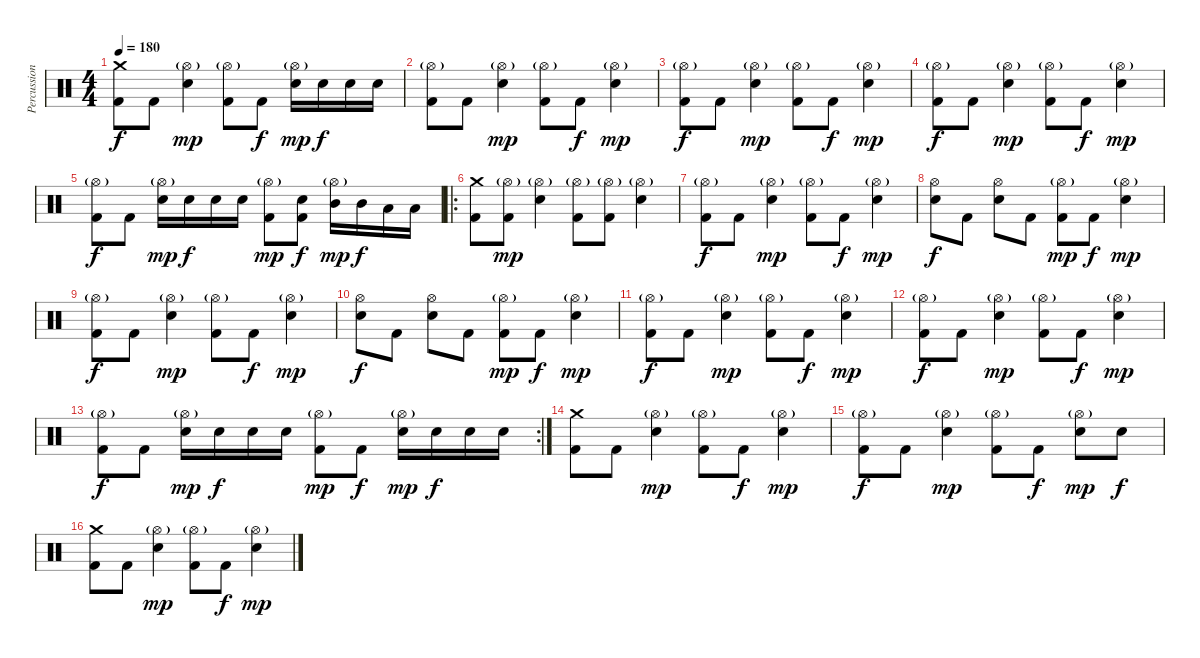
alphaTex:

\track ("Percussions" "Percussion") {instrument percussion}
\staff {score}
\articulation defaults
\ts (4 4)
\tempo 180
\clef neutral
\ks c
("Crash medium (hit)" "Kick (hit) 2").8{dy f} "Kick (hit) 2".8 ("Snare (hit) 2" "Hi-Hat (open)"{g}).4{dy mp} ("Hi-Hat (open)"{g} "Kick (hit) 2").8 "Kick (hit) 2".8{dy f} ("Snare (hit) 2" "Hi-Hat (open)"{g}).16{dy mp} "Snare (hit) 2".16{dy f} "Snare (hit) 2".16 "Snare (hit) 2".16 |
("Hi-Hat (open)"{g} "Kick (hit) 2").8 "Kick (hit) 2".8 ("Snare (hit) 2" "Hi-Hat (open)"{g}).4{dy mp} ("Hi-Hat (open)"{g} "Kick (hit) 2").8 "Kick (hit) 2".8{dy f} ("Snare (hit) 2" "Hi-Hat (open)"{g}).4{dy mp} |
("Hi-Hat (open)"{g} "Kick (hit) 2").8{dy f} "Kick (hit) 2".8 ("Snare (hit) 2" "Hi-Hat (open)"{g}).4{dy mp} ("Hi-Hat (open)"{g} "Kick (hit) 2").8 "Kick (hit) 2".8{dy f} ("Snare (hit) 2" "Hi-Hat (open)"{g}).4{dy mp} |
("Hi-Hat (open)"{g} "Kick (hit) 2").8{dy f} "Kick (hit) 2".8 ("Snare (hit) 2" "Hi-Hat (open)"{g}).4{dy mp} ("Hi-Hat (open)"{g} "Kick (hit) 2").8 "Kick (hit) 2".8{dy f} ("Snare (hit) 2" "Hi-Hat (open)"{g}).4{dy mp} |
("Hi-Hat (open)"{g} "Kick (hit) 2").8{dy f} "Kick (hit) 2".8 ("Snare (hit) 2" "Hi-Hat (open)"{g}).16{dy mp} "Snare (hit) 2".16{dy f} "Snare (hit) 2".16 "Snare (hit) 2".16 ("Hi-Hat (open)"{g} "Kick (hit) 2").8{dy mp} ("Snare (hit) 2" "Kick (hit) 2").8{dy f} ("Mid Tom (hit)" "Hi-Hat (open)"{g}).16{dy mp} "Mid Tom (hit)".16{dy f} "Low Tom (hit)".16 "Low Tom (hit)".16 |
\ro
("Crash medium (hit)" "Kick (hit) 2").8 ("Hi-Hat (open)"{g} "Kick (hit) 2").8{dy mp} ("Snare (hit) 2" "Hi-Hat (open)"{g}).4 ("Hi-Hat (open)"{g} "Kick (hit) 2").8 ("Hi-Hat (open)"{g} "Kick (hit) 2").8 ("Snare (hit) 2" "Hi-Hat (open)"{g}).4 |
("Hi-Hat (open)"{g} "Kick (hit) 2").8{dy f} "Kick (hit) 2".8 ("Snare (hit) 2" "Hi-Hat (open)"{g}).4{dy mp} ("Hi-Hat (open)"{g} "Kick (hit) 2").8 "Kick (hit) 2".8{dy f} ("Snare (hit) 2" "Hi-Hat (open)"{g}).4{dy mp} |
("Snare (hit) 2" "Hi-Hat (open)").8{dy f} "Kick (hit) 2".8 ("Snare (hit) 2" "Hi-Hat (open)").8 "Kick (hit) 2".8 ("Hi-Hat (open)"{g} "Kick (hit) 2").8{dy mp} "Kick (hit) 2".8{dy f} ("Snare (hit) 2" "Hi-Hat (open)"{g}).4{dy mp} |
("Hi-Hat (open)"{g} "Kick (hit) 2").8{dy f} "Kick (hit) 2".8 ("Snare (hit) 2" "Hi-Hat (open)"{g}).4{dy mp} ("Hi-Hat (open)"{g} "Kick (hit) 2").8 "Kick (hit) 2".8{dy f} ("Snare (hit) 2" "Hi-Hat (open)"{g}).4{dy mp} |
("Snare (hit) 2" "Hi-Hat (open)").8{dy f} "Kick (hit) 2".8 ("Snare (hit) 2" "Hi-Hat (open)").8 "Kick (hit) 2".8 ("Hi-Hat (open)"{g} "Kick (hit) 2").8{dy mp} "Kick (hit) 2".8{dy f} ("Snare (hit) 2" "Hi-Hat (open)"{g}).4{dy mp} |
("Hi-Hat (open)"{g} "Kick (hit) 2").8{dy f} "Kick (hit) 2".8 ("Snare (hit) 2" "Hi-Hat (open)"{g}).4{dy mp} ("Hi-Hat (open)"{g} "Kick (hit) 2").8 "Kick (hit) 2".8{dy f} ("Snare (hit) 2" "Hi-Hat (open)"{g}).4{dy mp} |
("Hi-Hat (open)"{g} "Kick (hit) 2").8{dy f} "Kick (hit) 2".8 ("Snare (hit) 2" "Hi-Hat (open)"{g}).4{dy mp} ("Hi-Hat (open)"{g} "Kick (hit) 2").8 "Kick (hit) 2".8{dy f} ("Snare (hit) 2" "Hi-Hat (open)"{g}).4{dy mp} |
\rc 2
("Hi-Hat (open)"{g} "Kick (hit) 2").8{dy f} "Kick (hit) 2".8 ("Snare (hit) 2" "Hi-Hat (open)"{g}).16{dy mp} "Snare (hit) 2".16{dy f} "Snare (hit) 2".16 "Snare (hit) 2".16 ("Hi-Hat (open)"{g} "Kick (hit) 2").8{dy mp} "Kick (hit) 2".8{dy f} ("Snare (hit) 2" "Hi-Hat (open)"{g}).16{dy mp} "Snare (hit) 2".16{dy f} "Snare (hit) 2".16 "Snare (hit) 2".16 |
("Crash medium (hit)" "Kick (hit) 2").8 "Kick (hit) 2".8 ("Snare (hit) 2" "Hi-Hat (open)"{g}).4{dy mp} ("Hi-Hat (open)"{g} "Kick (hit) 2").8 "Kick (hit) 2".8{dy f} ("Snare (hit) 2" "Hi-Hat (open)"{g}).4{dy mp} |
("Hi-Hat (open)"{g} "Kick (hit) 2").8{dy f} "Kick (hit) 2".8 ("Snare (hit) 2" "Hi-Hat (open)"{g}).4{dy mp} ("Hi-Hat (open)"{g} "Kick (hit) 2").8 "Kick (hit) 2".8{dy f} ("Snare (hit) 2" "Hi-Hat (open)"{g}).8{dy mp} "Snare (hit) 2".8{dy f} |
("Crash medium (hit)" "Kick (hit) 2").8 "Kick (hit) 2".8 ("Snare (hit) 2" "Hi-Hat (open)"{g}).4{dy mp} ("Hi-Hat (open)"{g} "Kick (hit) 2").8 "Kick (hit) 2".8{dy f} ("Snare (hit) 2" "Hi-Hat (open)"{g}).4{dy mp}
